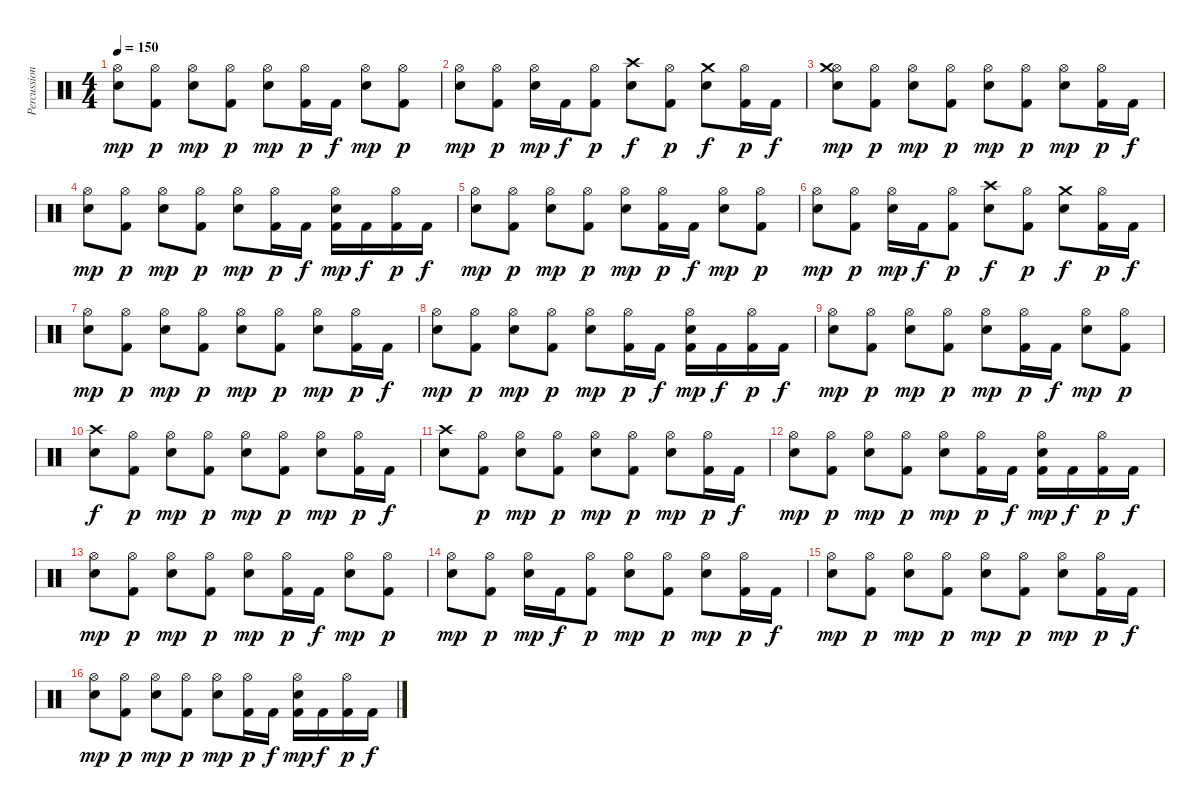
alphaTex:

\track ("Percussion" "Percussion") {instrument percussion}
\staff {score}
\articulation defaults
\ts (4 4)
\tempo 150
\clef neutral
\ks c
("Hi-Hat (open)" "Snare (hit) 2").8{dy mp} ("Hi-Hat (open)" "Kick (hit) 2").8{dy p} ("Hi-Hat (open)" "Snare (hit) 2").8{dy mp} ("Hi-Hat (open)" "Kick (hit) 2").8{dy p} ("Hi-Hat (open)" "Snare (hit) 2").8{dy mp} ("Hi-Hat (open)" "Kick (hit) 2").16{dy p} "Kick (hit) 2".16{dy f} ("Hi-Hat (open)" "Snare (hit) 2").8{dy mp} ("Hi-Hat (open)" "Kick (hit) 2").8{dy p} |
("Hi-Hat (open)" "Snare (hit) 2").8{dy mp} ("Hi-Hat (open)" "Kick (hit) 2").8{dy p} ("Hi-Hat (open)" "Snare (hit) 2").16{dy mp} "Kick (hit) 2".16{dy f} ("Hi-Hat (open)" "Kick (hit) 2").8{dy p} ("Crash high (hit)" "Snare (hit) 2").8{dy f} ("Hi-Hat (open)" "Kick (hit) 2").8{dy p} ("Crash medium (hit)" "Snare (hit) 2").8{dy f} ("Hi-Hat (open)" "Kick (hit) 2").16{dy p} "Kick (hit) 2".16{dy f} |
("Hi-Hat (open)" "Crash medium (hit)" "Snare (hit) 2").8{dy mp} ("Hi-Hat (open)" "Kick (hit) 2").8{dy p} ("Hi-Hat (open)" "Snare (hit) 2").8{dy mp} ("Hi-Hat (open)" "Kick (hit) 2").8{dy p} ("Hi-Hat (open)" "Snare (hit) 2").8{dy mp} ("Hi-Hat (open)" "Kick (hit) 2").8{dy p} ("Hi-Hat (open)" "Snare (hit) 2").8{dy mp} ("Hi-Hat (open)" "Kick (hit) 2").16{dy p} "Kick (hit) 2".16{dy f} |
("Hi-Hat (open)" "Snare (hit) 2").8{dy mp} ("Hi-Hat (open)" "Kick (hit) 2").8{dy p} ("Hi-Hat (open)" "Snare (hit) 2").8{dy mp} ("Hi-Hat (open)" "Kick (hit) 2").8{dy p} ("Hi-Hat (open)" "Snare (hit) 2").8{dy mp} ("Hi-Hat (open)" "Kick (hit) 2").16{dy p} "Kick (hit) 2".16{dy f} ("Hi-Hat (open)" "Kick (hit) 2" "Snare (hit) 2").16{dy mp} "Kick (hit) 2".16{dy f} ("Hi-Hat (open)" "Kick (hit) 2").16{dy p} "Kick (hit) 2".16{dy f} |
("Hi-Hat (open)" "Snare (hit) 2").8{dy mp} ("Hi-Hat (open)" "Kick (hit) 2").8{dy p} ("Hi-Hat (open)" "Snare (hit) 2").8{dy mp} ("Hi-Hat (open)" "Kick (hit) 2").8{dy p} ("Hi-Hat (open)" "Snare (hit) 2").8{dy mp} ("Hi-Hat (open)" "Kick (hit) 2").16{dy p} "Kick (hit) 2".16{dy f} ("Hi-Hat (open)" "Snare (hit) 2").8{dy mp} ("Hi-Hat (open)" "Kick (hit) 2").8{dy p} |
("Hi-Hat (open)" "Snare (hit) 2").8{dy mp} ("Hi-Hat (open)" "Kick (hit) 2").8{dy p} ("Hi-Hat (open)" "Snare (hit) 2").16{dy mp} "Kick (hit) 2".16{dy f} ("Hi-Hat (open)" "Kick (hit) 2").8{dy p} ("Crash high (hit)" "Snare (hit) 2").8{dy f} ("Hi-Hat (open)" "Kick (hit) 2").8{dy p} ("Crash medium (hit)" "Snare (hit) 2").8{dy f} ("Hi-Hat (open)" "Kick (hit) 2").16{dy p} "Kick (hit) 2".16{dy f} |
("Hi-Hat (open)" "Snare (hit) 2").8{dy mp} ("Hi-Hat (open)" "Kick (hit) 2").8{dy p} ("Hi-Hat (open)" "Snare (hit) 2").8{dy mp} ("Hi-Hat (open)" "Kick (hit) 2").8{dy p} ("Hi-Hat (open)" "Snare (hit) 2").8{dy mp} ("Hi-Hat (open)" "Kick (hit) 2").8{dy p} ("Hi-Hat (open)" "Snare (hit) 2").8{dy mp} ("Hi-Hat (open)" "Kick (hit) 2").16{dy p} "Kick (hit) 2".16{dy f} |
("Hi-Hat (open)" "Snare (hit) 2").8{dy mp} ("Hi-Hat (open)" "Kick (hit) 2").8{dy p} ("Hi-Hat (open)" "Snare (hit) 2").8{dy mp} ("Hi-Hat (open)" "Kick (hit) 2").8{dy p} ("Hi-Hat (open)" "Snare (hit) 2").8{dy mp} ("Hi-Hat (open)" "Kick (hit) 2").16{dy p} "Kick (hit) 2".16{dy f} ("Hi-Hat (open)" "Kick (hit) 2" "Snare (hit) 2").16{dy mp} "Kick (hit) 2".16{dy f} ("Hi-Hat (open)" "Kick (hit) 2").16{dy p} "Kick (hit) 2".16{dy f} |
("Hi-Hat (open)" "Snare (hit) 2").8{dy mp} ("Hi-Hat (open)" "Kick (hit) 2").8{dy p} ("Hi-Hat (open)" "Snare (hit) 2").8{dy mp} ("Hi-Hat (open)" "Kick (hit) 2").8{dy p} ("Hi-Hat (open)" "Snare (hit) 2").8{dy mp} ("Hi-Hat (open)" "Kick (hit) 2").16{dy p} "Kick (hit) 2".16{dy f} ("Hi-Hat (open)" "Snare (hit) 2").8{dy mp} ("Hi-Hat (open)" "Kick (hit) 2").8{dy p} |
("Crash high (hit)" "Snare (hit) 2").8{dy f} ("Hi-Hat (open)" "Kick (hit) 2").8{dy p} ("Hi-Hat (open)" "Snare (hit) 2").8{dy mp} ("Hi-Hat (open)" "Kick (hit) 2").8{dy p} ("Hi-Hat (open)" "Snare (hit) 2").8{dy mp} ("Hi-Hat (open)" "Kick (hit) 2").8{dy p} ("Hi-Hat (open)" "Snare (hit) 2").8{dy mp} ("Hi-Hat (open)" "Kick (hit) 2").16{dy p} "Kick (hit) 2".16{dy f} |
("Crash high (hit)" "Snare (hit) 2").8 ("Hi-Hat (open)" "Kick (hit) 2").8{dy p} ("Hi-Hat (open)" "Snare (hit) 2").8{dy mp} ("Hi-Hat (open)" "Kick (hit) 2").8{dy p} ("Hi-Hat (open)" "Snare (hit) 2").8{dy mp} ("Hi-Hat (open)" "Kick (hit) 2").8{dy p} ("Hi-Hat (open)" "Snare (hit) 2").8{dy mp} ("Hi-Hat (open)" "Kick (hit) 2").16{dy p} "Kick (hit) 2".16{dy f} |
("Hi-Hat (open)" "Snare (hit) 2").8{dy mp} ("Hi-Hat (open)" "Kick (hit) 2").8{dy p} ("Hi-Hat (open)" "Snare (hit) 2").8{dy mp} ("Hi-Hat (open)" "Kick (hit) 2").8{dy p} ("Hi-Hat (open)" "Snare (hit) 2").8{dy mp} ("Hi-Hat (open)" "Kick (hit) 2").16{dy p} "Kick (hit) 2".16{dy f} ("Hi-Hat (open)" "Kick (hit) 2" "Snare (hit) 2").16{dy mp} "Kick (hit) 2".16{dy f} ("Hi-Hat (open)" "Kick (hit) 2").16{dy p} "Kick (hit) 2".16{dy f} |
("Hi-Hat (open)" "Snare (hit) 2").8{dy mp} ("Hi-Hat (open)" "Kick (hit) 2").8{dy p} ("Hi-Hat (open)" "Snare (hit) 2").8{dy mp} ("Hi-Hat (open)" "Kick (hit) 2").8{dy p} ("Hi-Hat (open)" "Snare (hit) 2").8{dy mp} ("Hi-Hat (open)" "Kick (hit) 2").16{dy p} "Kick (hit) 2".16{dy f} ("Hi-Hat (open)" "Snare (hit) 2").8{dy mp} ("Hi-Hat (open)" "Kick (hit) 2").8{dy p} |
("Hi-Hat (open)" "Snare (hit) 2").8{dy mp} ("Hi-Hat (open)" "Kick (hit) 2").8{dy p} ("Hi-Hat (open)" "Snare (hit) 2").16{dy mp} "Kick (hit) 2".16{dy f} ("Hi-Hat (open)" "Kick (hit) 2").8{dy p} ("Hi-Hat (open)" "Snare (hit) 2").8{dy mp} ("Hi-Hat (open)" "Kick (hit) 2").8{dy p} ("Hi-Hat (open)" "Snare (hit) 2").8{dy mp} ("Hi-Hat (open)" "Kick (hit) 2").16{dy p} "Kick (hit) 2".16{dy f} |
("Hi-Hat (open)" "Snare (hit) 2").8{dy mp} ("Hi-Hat (open)" "Kick (hit) 2").8{dy p} ("Hi-Hat (open)" "Snare (hit) 2").8{dy mp} ("Hi-Hat (open)" "Kick (hit) 2").8{dy p} ("Hi-Hat (open)" "Snare (hit) 2").8{dy mp} ("Hi-Hat (open)" "Kick (hit) 2").8{dy p} ("Hi-Hat (open)" "Snare (hit) 2").8{dy mp} ("Hi-Hat (open)" "Kick (hit) 2").16{dy p} "Kick (hit) 2".16{dy f} |
("Hi-Hat (open)" "Snare (hit) 2").8{dy mp} ("Hi-Hat (open)" "Kick (hit) 2").8{dy p} ("Hi-Hat (open)" "Snare (hit) 2").8{dy mp} ("Hi-Hat (open)" "Kick (hit) 2").8{dy p} ("Hi-Hat (open)" "Snare (hit) 2").8{dy mp} ("Hi-Hat (open)" "Kick (hit) 2").16{dy p} "Kick (hit) 2".16{dy f} ("Hi-Hat (open)" "Kick (hit) 2" "Snare (hit) 2").16{dy mp} "Kick (hit) 2".16{dy f} ("Hi-Hat (open)" "Kick (hit) 2").16{dy p} "Kick (hit) 2".16{dy f}
